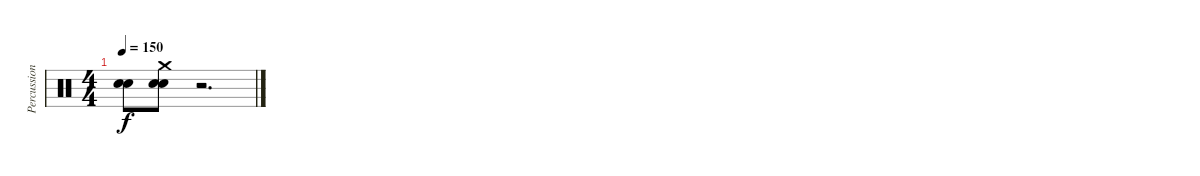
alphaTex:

\track ("Percussions" "Percussion") {instrument percussion}
\staff {score}
\articulation defaults
\ts (4 4)
\tempo 150
\clef neutral
\ks c
("Snare (hit) 2" "Electric Snare (hit)").8{dy f} ("Crash medium (hit)" "Snare (hit) 2" "Electric Snare (hit)").8 r.2{d}
